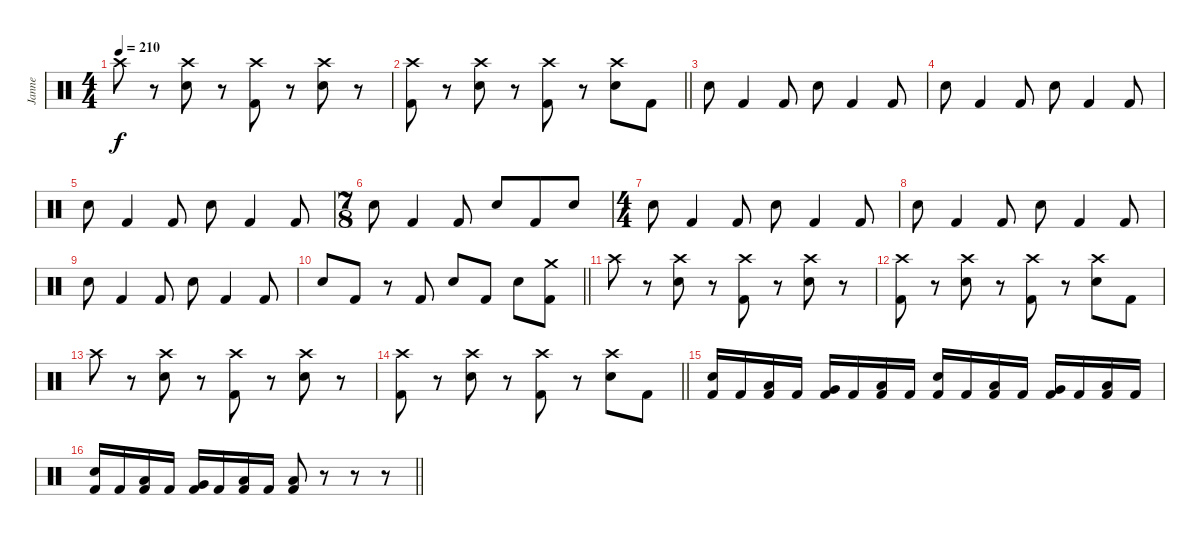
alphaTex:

\track ("Janne" "Janne") {instrument percussion}
\staff {score}
\articulation defaults
\ts (4 4)
\tempo 210
\clef neutral
\ks c "Crash high (hit)".8{dy f}
r.8 ("Crash high (hit)" "Electric Snare (hit)").8 r.8 ("Crash high (hit)" "Kick (hit) 2").8 r.8 ("Crash high (hit)" "Electric Snare (hit)").8 r.8 |
\barLineRight lightlight
("Crash high (hit)" "Kick (hit) 2").8 r.8 ("Crash high (hit)" "Electric Snare (hit)").8 r.8 ("Crash high (hit)" "Kick (hit) 2").8 r.8 ("Crash high (hit)" "Electric Snare (hit)").8 "Kick (hit) 2".8 |
"Electric Snare (hit)".8 "Kick (hit) 2".4 "Kick (hit) 2".8 "Electric Snare (hit)".8 "Kick (hit) 2".4 "Kick (hit) 2".8 |
"Electric Snare (hit)".8 "Kick (hit) 2".4 "Kick (hit) 2".8 "Electric Snare (hit)".8 "Kick (hit) 2".4 "Kick (hit) 2".8 |
"Electric Snare (hit)".8 "Kick (hit) 2".4 "Kick (hit) 2".8 "Electric Snare (hit)".8 "Kick (hit) 2".4 "Kick (hit) 2".8 |
\ts (7 8)
"Electric Snare (hit)".8 "Kick (hit) 2".4 "Kick (hit) 2".8 "Electric Snare (hit)".8 "Kick (hit) 2".8 "Electric Snare (hit)".8 |
\ts (4 4)
"Electric Snare (hit)".8 "Kick (hit) 2".4 "Kick (hit) 2".8 "Electric Snare (hit)".8 "Kick (hit) 2".4 "Kick (hit) 2".8 |
"Electric Snare (hit)".8 "Kick (hit) 2".4 "Kick (hit) 2".8 "Electric Snare (hit)".8 "Kick (hit) 2".4 "Kick (hit) 2".8 |
"Electric Snare (hit)".8 "Kick (hit) 2".4 "Kick (hit) 2".8 "Electric Snare (hit)".8 "Kick (hit) 2".4 "Kick (hit) 2".8 |
\barLineRight lightlight "Electric Snare (hit)".8 "Kick (hit) 2".8
r.8 "Kick (hit) 2".8 "Electric Snare (hit)".8 "Kick (hit) 2".8 "Electric Snare (hit)".8 ("Crash medium (hit)" "Kick (hit) 2").8 |
"Crash high (hit)".8 r.8 ("Crash high (hit)" "Electric Snare (hit)").8 r.8 ("Crash high (hit)" "Kick (hit) 2").8 r.8 ("Crash high (hit)" "Electric Snare (hit)").8 r.8 |
("Crash high (hit)" "Kick (hit) 2").8 r.8 ("Crash high (hit)" "Electric Snare (hit)").8 r.8 ("Crash high (hit)" "Kick (hit) 2").8 r.8 ("Crash high (hit)" "Electric Snare (hit)").8 "Kick (hit) 2".8 |
"Crash high (hit)".8 r.8 ("Crash high (hit)" "Electric Snare (hit)").8 r.8 ("Crash high (hit)" "Kick (hit) 2").8 r.8 ("Crash high (hit)" "Electric Snare (hit)").8 r.8 |
\barLineRight lightlight
("Crash high (hit)" "Kick (hit) 2").8 r.8 ("Crash high (hit)" "Electric Snare (hit)").8 r.8 ("Crash high (hit)" "Kick (hit) 2").8 r.8 ("Crash high (hit)" "Electric Snare (hit)").8 "Kick (hit) 2".8 |
("Electric Snare (hit)" "Kick (hit) 2").16 "Kick (hit) 2".16 ("Low Tom (hit)" "Kick (hit) 2").16 "Kick (hit) 2".16 ("Very Low Tom (hit)" "Kick (hit) 2").16 "Kick (hit) 2".16 ("Low Floor Tom (hit)" "Kick (hit) 2").16 "Kick (hit) 2".16 ("Electric Snare (hit)" "Kick (hit) 2").16 "Kick (hit) 2".16 ("Low Tom (hit)" "Kick (hit) 2").16 "Kick (hit) 2".16 ("Very Low Tom (hit)" "Kick (hit) 2").16 "Kick (hit) 2".16 ("Low Floor Tom (hit)" "Kick (hit) 2").16 "Kick (hit) 2".16 |
\barLineRight lightlight
("Electric Snare (hit)" "Kick (hit) 2").16 "Kick (hit) 2".16 ("Low Tom (hit)" "Kick (hit) 2").16 "Kick (hit) 2".16 ("Very Low Tom (hit)" "Kick (hit) 2").16 "Kick (hit) 2".16 ("Low Floor Tom (hit)" "Kick (hit) 2").16 "Kick (hit) 2".16 ("Low Floor Tom (hit)" "Kick (hit) 2").8 r.8 r.8 r.8
